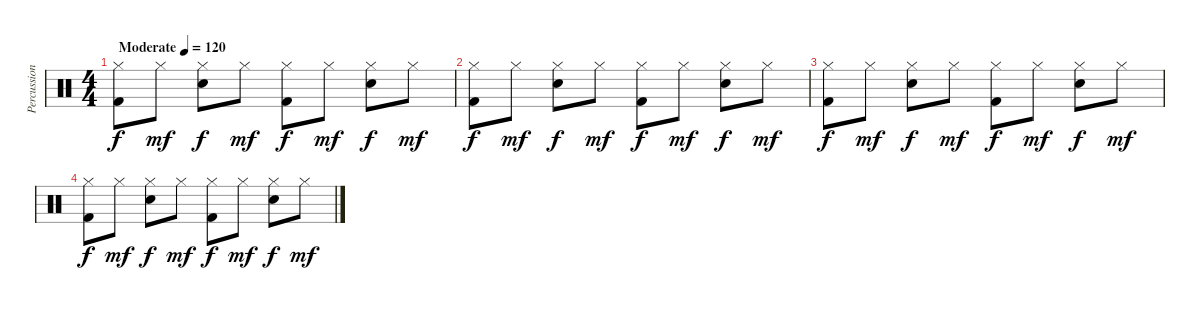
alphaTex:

\track ("Percussion" "Percussion") {instrument percussion}
\staff {score}
\articulation defaults
\ts (4 4)
\tempo (120 "Moderate")
\clef neutral
\ks c
("Hi-Hat (closed)" "Kick (hit) 2").8{dy f} "Hi-Hat (closed)".8{dy mf} ("Hi-Hat (closed)" "Electric Snare (hit)").8{dy f} "Hi-Hat (closed)".8{dy mf} ("Hi-Hat (closed)" "Kick (hit) 2").8{dy f} "Hi-Hat (closed)".8{dy mf} ("Hi-Hat (closed)" "Electric Snare (hit)").8{dy f} "Hi-Hat (closed)".8{dy mf} |
("Hi-Hat (closed)" "Kick (hit) 2").8{dy f} "Hi-Hat (closed)".8{dy mf} ("Hi-Hat (closed)" "Electric Snare (hit)").8{dy f} "Hi-Hat (closed)".8{dy mf} ("Hi-Hat (closed)" "Kick (hit) 2").8{dy f} "Hi-Hat (closed)".8{dy mf} ("Hi-Hat (closed)" "Electric Snare (hit)").8{dy f} "Hi-Hat (closed)".8{dy mf} |
("Hi-Hat (closed)" "Kick (hit) 2").8{dy f} "Hi-Hat (closed)".8{dy mf} ("Hi-Hat (closed)" "Electric Snare (hit)").8{dy f} "Hi-Hat (closed)".8{dy mf} ("Hi-Hat (closed)" "Kick (hit) 2").8{dy f} "Hi-Hat (closed)".8{dy mf} ("Hi-Hat (closed)" "Electric Snare (hit)").8{dy f} "Hi-Hat (closed)".8{dy mf} |
("Hi-Hat (closed)" "Kick (hit) 2").8{dy f} "Hi-Hat (closed)".8{dy mf} ("Hi-Hat (closed)" "Electric Snare (hit)").8{dy f} "Hi-Hat (closed)".8{dy mf} ("Hi-Hat (closed)" "Kick (hit) 2").8{dy f} "Hi-Hat (closed)".8{dy mf} ("Hi-Hat (closed)" "Electric Snare (hit)").8{dy f} "Hi-Hat (closed)".8{dy mf}
